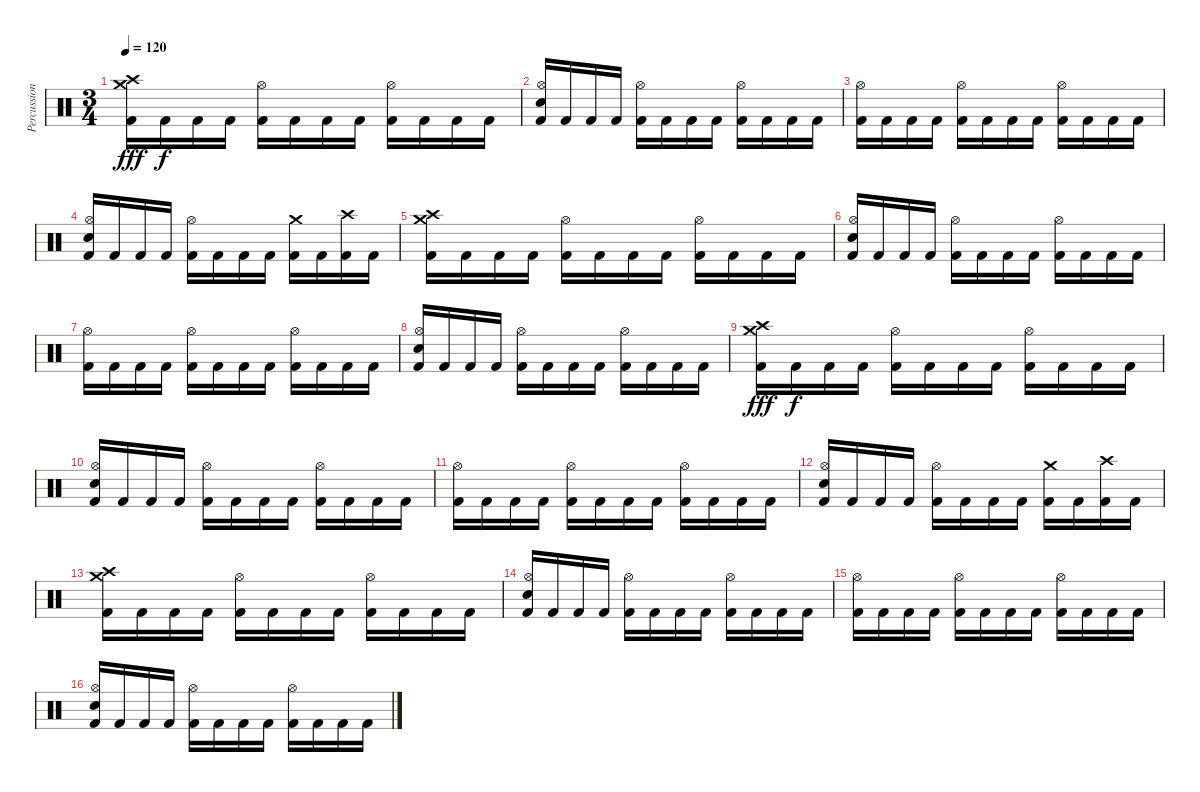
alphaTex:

\track ("Percussion" "Percussion") {instrument percussion}
\staff {score}
\articulation defaults
\ts (3 4)
\tempo 120
\clef neutral
\ks c
("Crash high (hit)" "Crash medium (hit)" "Kick (hit) 2").16{dy fff} "Kick (hit) 2".16{dy f} "Kick (hit) 2".16 "Kick (hit) 2".16 ("Hi-Hat (open)" "Kick (hit) 2").16 "Kick (hit) 2".16 "Kick (hit) 2".16 "Kick (hit) 2".16 ("Hi-Hat (open)" "Kick (hit) 2").16 "Kick (hit) 2".16 "Kick (hit) 2".16 "Kick (hit) 2".16 |
("Hi-Hat (open)" "Electric Snare (hit)" "Kick (hit) 2").16 "Kick (hit) 2".16 "Kick (hit) 2".16 "Kick (hit) 2".16 ("Hi-Hat (open)" "Kick (hit) 2").16 "Kick (hit) 2".16 "Kick (hit) 2".16 "Kick (hit) 2".16 ("Hi-Hat (open)" "Kick (hit) 2").16 "Kick (hit) 2".16 "Kick (hit) 2".16 "Kick (hit) 2".16 |
("Hi-Hat (open)" "Kick (hit) 2").16 "Kick (hit) 2".16 "Kick (hit) 2".16 "Kick (hit) 2".16 ("Hi-Hat (open)" "Kick (hit) 2").16 "Kick (hit) 2".16 "Kick (hit) 2".16 "Kick (hit) 2".16 ("Hi-Hat (open)" "Kick (hit) 2").16 "Kick (hit) 2".16 "Kick (hit) 2".16 "Kick (hit) 2".16 |
("Hi-Hat (open)" "Electric Snare (hit)" "Kick (hit) 2").16 "Kick (hit) 2".16 "Kick (hit) 2".16 "Kick (hit) 2".16 ("Hi-Hat (open)" "Kick (hit) 2").16 "Kick (hit) 2".16 "Kick (hit) 2".16 "Kick (hit) 2".16 ("Crash medium (hit)" "Kick (hit) 2").16 "Kick (hit) 2".16 ("Crash high (hit)" "Kick (hit) 2").16 "Kick (hit) 2".16 |
("Crash medium (hit)" "Crash high (hit)" "Kick (hit) 2").16 "Kick (hit) 2".16 "Kick (hit) 2".16 "Kick (hit) 2".16 ("Hi-Hat (open)" "Kick (hit) 2").16 "Kick (hit) 2".16 "Kick (hit) 2".16 "Kick (hit) 2".16 ("Hi-Hat (open)" "Kick (hit) 2").16 "Kick (hit) 2".16 "Kick (hit) 2".16 "Kick (hit) 2".16 |
("Hi-Hat (open)" "Electric Snare (hit)" "Kick (hit) 2").16 "Kick (hit) 2".16 "Kick (hit) 2".16 "Kick (hit) 2".16 ("Hi-Hat (open)" "Kick (hit) 2").16 "Kick (hit) 2".16 "Kick (hit) 2".16 "Kick (hit) 2".16 ("Hi-Hat (open)" "Kick (hit) 2").16 "Kick (hit) 2".16 "Kick (hit) 2".16 "Kick (hit) 2".16 |
("Hi-Hat (open)" "Kick (hit) 2").16 "Kick (hit) 2".16 "Kick (hit) 2".16 "Kick (hit) 2".16 ("Hi-Hat (open)" "Kick (hit) 2").16 "Kick (hit) 2".16 "Kick (hit) 2".16 "Kick (hit) 2".16 ("Hi-Hat (open)" "Kick (hit) 2").16 "Kick (hit) 2".16 "Kick (hit) 2".16 "Kick (hit) 2".16 |
("Hi-Hat (open)" "Electric Snare (hit)" "Kick (hit) 2").16 "Kick (hit) 2".16 "Kick (hit) 2".16 "Kick (hit) 2".16 ("Hi-Hat (open)" "Kick (hit) 2").16 "Kick (hit) 2".16 "Kick (hit) 2".16 "Kick (hit) 2".16 ("Hi-Hat (open)" "Kick (hit) 2").16 "Kick (hit) 2".16 "Kick (hit) 2".16 "Kick (hit) 2".16 |
("Crash high (hit)" "Crash medium (hit)" "Kick (hit) 2").16{dy fff} "Kick (hit) 2".16{dy f} "Kick (hit) 2".16 "Kick (hit) 2".16 ("Hi-Hat (open)" "Kick (hit) 2").16 "Kick (hit) 2".16 "Kick (hit) 2".16 "Kick (hit) 2".16 ("Hi-Hat (open)" "Kick (hit) 2").16 "Kick (hit) 2".16 "Kick (hit) 2".16 "Kick (hit) 2".16 |
("Hi-Hat (open)" "Electric Snare (hit)" "Kick (hit) 2").16 "Kick (hit) 2".16 "Kick (hit) 2".16 "Kick (hit) 2".16 ("Hi-Hat (open)" "Kick (hit) 2").16 "Kick (hit) 2".16 "Kick (hit) 2".16 "Kick (hit) 2".16 ("Hi-Hat (open)" "Kick (hit) 2").16 "Kick (hit) 2".16 "Kick (hit) 2".16 "Kick (hit) 2".16 |
("Hi-Hat (open)" "Kick (hit) 2").16 "Kick (hit) 2".16 "Kick (hit) 2".16 "Kick (hit) 2".16 ("Hi-Hat (open)" "Kick (hit) 2").16 "Kick (hit) 2".16 "Kick (hit) 2".16 "Kick (hit) 2".16 ("Hi-Hat (open)" "Kick (hit) 2").16 "Kick (hit) 2".16 "Kick (hit) 2".16 "Kick (hit) 2".16 |
("Hi-Hat (open)" "Electric Snare (hit)" "Kick (hit) 2").16 "Kick (hit) 2".16 "Kick (hit) 2".16 "Kick (hit) 2".16 ("Hi-Hat (open)" "Kick (hit) 2").16 "Kick (hit) 2".16 "Kick (hit) 2".16 "Kick (hit) 2".16 ("Crash medium (hit)" "Kick (hit) 2").16 "Kick (hit) 2".16 ("Crash high (hit)" "Kick (hit) 2").16 "Kick (hit) 2".16 |
("Crash medium (hit)" "Crash high (hit)" "Kick (hit) 2").16 "Kick (hit) 2".16 "Kick (hit) 2".16 "Kick (hit) 2".16 ("Hi-Hat (open)" "Kick (hit) 2").16 "Kick (hit) 2".16 "Kick (hit) 2".16 "Kick (hit) 2".16 ("Hi-Hat (open)" "Kick (hit) 2").16 "Kick (hit) 2".16 "Kick (hit) 2".16 "Kick (hit) 2".16 |
("Hi-Hat (open)" "Electric Snare (hit)" "Kick (hit) 2").16 "Kick (hit) 2".16 "Kick (hit) 2".16 "Kick (hit) 2".16 ("Hi-Hat (open)" "Kick (hit) 2").16 "Kick (hit) 2".16 "Kick (hit) 2".16 "Kick (hit) 2".16 ("Hi-Hat (open)" "Kick (hit) 2").16 "Kick (hit) 2".16 "Kick (hit) 2".16 "Kick (hit) 2".16 |
("Hi-Hat (open)" "Kick (hit) 2").16 "Kick (hit) 2".16 "Kick (hit) 2".16 "Kick (hit) 2".16 ("Hi-Hat (open)" "Kick (hit) 2").16 "Kick (hit) 2".16 "Kick (hit) 2".16 "Kick (hit) 2".16 ("Hi-Hat (open)" "Kick (hit) 2").16 "Kick (hit) 2".16 "Kick (hit) 2".16 "Kick (hit) 2".16 |
("Hi-Hat (open)" "Electric Snare (hit)" "Kick (hit) 2").16 "Kick (hit) 2".16 "Kick (hit) 2".16 "Kick (hit) 2".16 ("Hi-Hat (open)" "Kick (hit) 2").16 "Kick (hit) 2".16 "Kick (hit) 2".16 "Kick (hit) 2".16 ("Hi-Hat (open)" "Kick (hit) 2").16 "Kick (hit) 2".16 "Kick (hit) 2".16 "Kick (hit) 2".16
